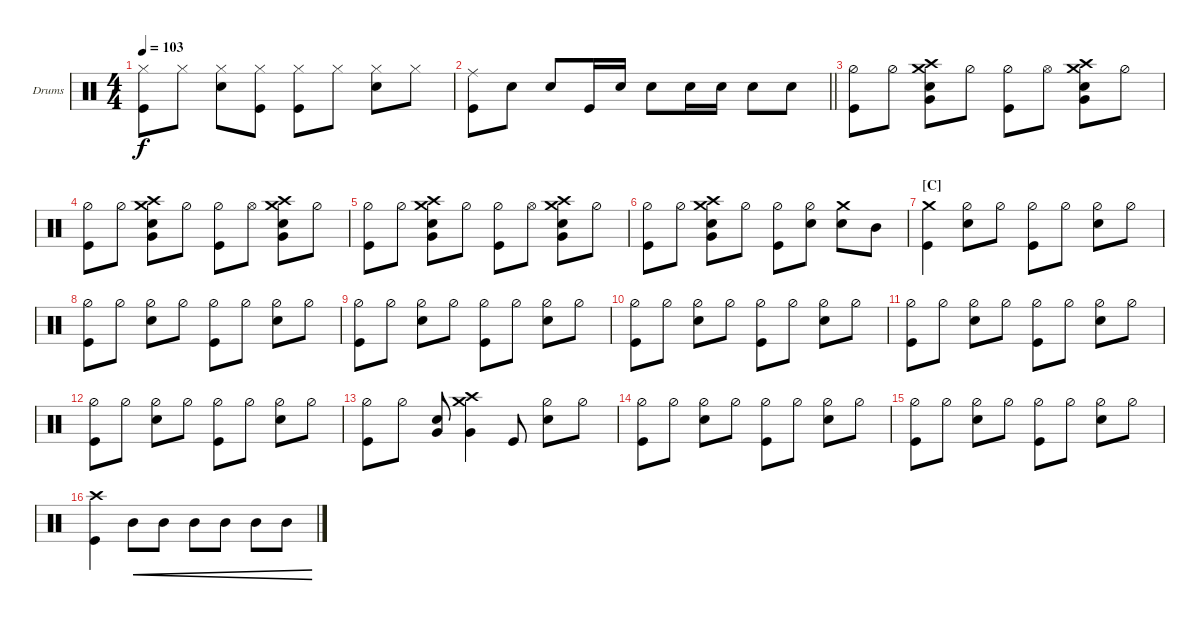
\bracketExtendMode groupsimilarinstruments
\firstSystemTrackNameOrientation horizontal
\otherSystemsTrackNameOrientation horizontal
\track ("Drumkit (Mason)" "Drums") {instrument percussion}
\staff {score}
\articulation defaults
\ts (4 4)
\tempo 103
\clef neutral
\ks c
("Kick (hit)" "Hi-Hat (closed)").8{dy f} "Hi-Hat (closed)".8 ("Snare (hit) 2" "Hi-Hat (closed)").8 ("Hi-Hat (closed)" "Kick (hit)").8 ("Kick (hit)" "Hi-Hat (closed)").8 "Hi-Hat (closed)".8 ("Snare (hit) 2" "Hi-Hat (closed)").8 "Hi-Hat (closed)".8 |
\barLineRight lightlight
("Kick (hit)" "Ride (middle)").8 "Snare (hit) 2".8 "Snare (hit) 2".8 "Kick (hit)".16 "Snare (hit) 2".16 "Snare (hit) 2".8 "Snare (hit) 2".16 "Snare (hit) 2".16 "Snare (hit) 2".8 "Snare (hit) 2".8 |
("Kick (hit)" "Hi-Hat (half)").8 "Hi-Hat (half)".8 ("Snare (hit) 2" "Crash medium (hit)" "Very Low Tom (hit)" "Crash high (hit)").8 "Hi-Hat (half)".8 ("Kick (hit)" "Hi-Hat (half)").8 "Hi-Hat (open)".8 ("Snare (hit) 2" "Crash medium (hit)" "Very Low Tom (hit)" "Crash high (hit)").8 "Hi-Hat (half)".8 |
("Kick (hit)" "Hi-Hat (half)").8 "Hi-Hat (half)".8 ("Snare (hit) 2" "Crash medium (hit)" "Very Low Tom (hit)" "Crash high (hit)").8 "Hi-Hat (half)".8 ("Kick (hit)" "Hi-Hat (half)").8 "Hi-Hat (open)".8 ("Snare (hit) 2" "Crash medium (hit)" "Very Low Tom (hit)" "Crash high (hit)").8 "Hi-Hat (half)".8 |
("Kick (hit)" "Hi-Hat (half)").8 "Hi-Hat (half)".8 ("Snare (hit) 2" "Crash medium (hit)" "Very Low Tom (hit)" "Crash high (hit)").8 "Hi-Hat (half)".8 ("Kick (hit)" "Hi-Hat (half)").8 "Hi-Hat (open)".8 ("Snare (hit) 2" "Crash medium (hit)" "Very Low Tom (hit)" "Crash high (hit)").8 "Hi-Hat (half)".8 |
("Kick (hit)" "Hi-Hat (half)").8 "Hi-Hat (half)".8 ("Snare (hit) 2" "Crash medium (hit)" "Very Low Tom (hit)" "Crash high (hit)").8 "Hi-Hat (half)".8 ("Kick (hit)" "Hi-Hat (half)").8 ("Snare (hit) 2" "Hi-Hat (half)").8 ("Snare (hit) 2" "Crash medium (hit)").8 "Mid Tom (hit)".8 |
\section ("C" "")
("Kick (hit)" "Crash medium (hit)").4 ("Snare (hit) 2" "Hi-Hat (half)").8 "Hi-Hat (half)".8 ("Kick (hit)" "Hi-Hat (half)").8 "Hi-Hat (half)".8 ("Snare (hit) 2" "Hi-Hat (half)").8 "Hi-Hat (half)".8 |
("Kick (hit)" "Hi-Hat (half)").8 "Hi-Hat (half)".8 ("Snare (hit) 2" "Hi-Hat (half)").8 "Hi-Hat (half)".8 ("Kick (hit)" "Hi-Hat (half)").8 "Hi-Hat (half)".8 ("Snare (hit) 2" "Hi-Hat (half)").8 "Hi-Hat (half)".8 |
("Kick (hit)" "Hi-Hat (half)").8 "Hi-Hat (half)".8 ("Snare (hit) 2" "Hi-Hat (half)").8 "Hi-Hat (half)".8 ("Kick (hit)" "Hi-Hat (half)").8 "Hi-Hat (half)".8 ("Snare (hit) 2" "Hi-Hat (half)").8 "Hi-Hat (half)".8 |
("Kick (hit)" "Hi-Hat (half)").8 "Hi-Hat (half)".8 ("Snare (hit) 2" "Hi-Hat (half)").8 "Hi-Hat (half)".8 ("Kick (hit)" "Hi-Hat (half)").8 "Hi-Hat (half)".8 ("Snare (hit) 2" "Hi-Hat (half)").8 "Hi-Hat (half)".8 |
("Kick (hit)" "Hi-Hat (half)").8 "Hi-Hat (half)".8 ("Snare (hit) 2" "Hi-Hat (half)").8 "Hi-Hat (half)".8 ("Kick (hit)" "Hi-Hat (half)").8 "Hi-Hat (half)".8 ("Snare (hit) 2" "Hi-Hat (half)").8 "Hi-Hat (half)".8 |
("Kick (hit)" "Hi-Hat (half)").8 "Hi-Hat (half)".8 ("Snare (hit) 2" "Hi-Hat (half)").8 "Hi-Hat (half)".8 ("Kick (hit)" "Hi-Hat (half)").8 "Hi-Hat (half)".8 ("Snare (hit) 2" "Hi-Hat (half)").8 "Hi-Hat (half)".8 |
("Kick (hit)" "Hi-Hat (half)").8 "Hi-Hat (half)".8 ("Snare (hit) 2" "Very Low Tom (hit)").8 ("Crash medium (hit)" "Crash high (hit)" "Very Low Tom (hit)").4 "Kick (hit)".8 ("Snare (hit) 2" "Hi-Hat (half)").8 "Hi-Hat (half)".8 |
("Kick (hit)" "Hi-Hat (half)").8 "Hi-Hat (half)".8 ("Snare (hit) 2" "Hi-Hat (half)").8 "Hi-Hat (half)".8 ("Kick (hit)" "Hi-Hat (half)").8 "Hi-Hat (half)".8 ("Snare (hit) 2" "Hi-Hat (half)").8 "Hi-Hat (half)".8 |
("Kick (hit)" "Hi-Hat (half)").8 "Hi-Hat (half)".8 ("Snare (hit) 2" "Hi-Hat (half)").8 "Hi-Hat (half)".8 ("Kick (hit)" "Hi-Hat (half)").8 "Hi-Hat (half)".8 ("Snare (hit) 2" "Hi-Hat (half)").8 "Hi-Hat (half)".8 |
("Kick (hit)" "Crash high (hit)").4 "Mid Tom (hit)".8{cre} "Mid Tom (hit)".8{cre} "Mid Tom (hit)".8{cre} "Mid Tom (hit)".8{cre} "Mid Tom (hit)".8{cre} "Mid Tom (hit)".8{cre}
